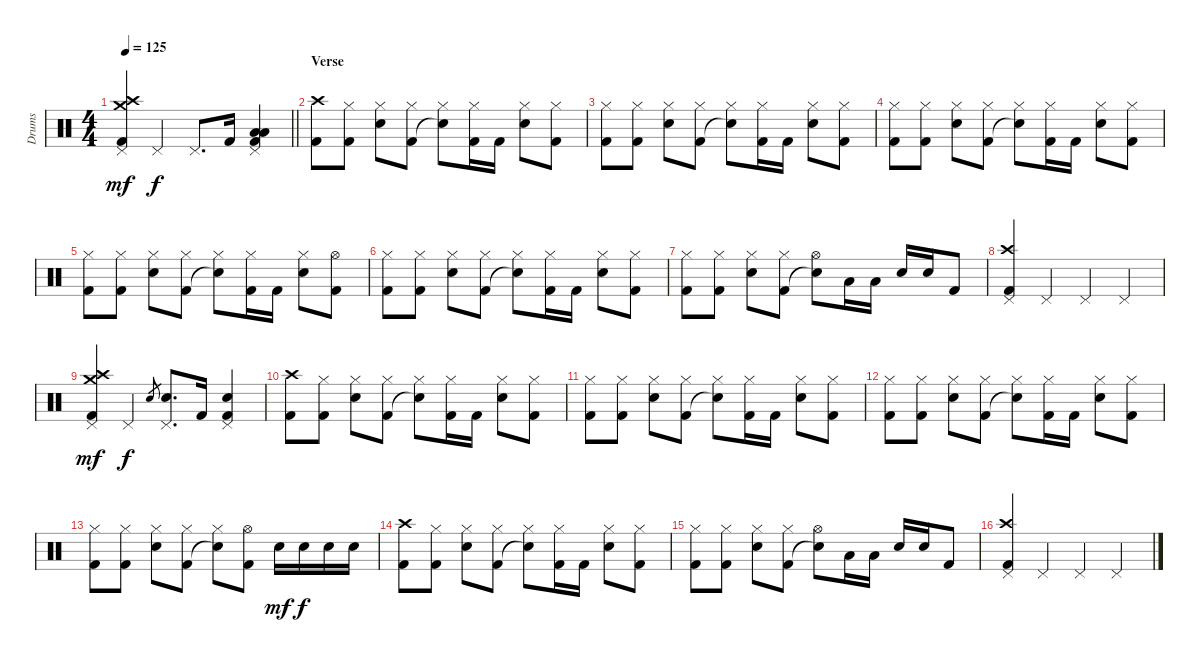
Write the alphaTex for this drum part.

\track ("Drums" "Drums") {instrument percussion}
\staff {score}
\articulation defaults
\ts (4 4)
\tempo 125
\clef neutral
\barLineRight lightlight
\ks c
("Pedal Hi-Hat (hit)" "Crash high (hit)" "Crash medium (hit)" "Kick (hit) 2").4{dy mf} "Pedal Hi-Hat (hit)".4{dy f} "Pedal Hi-Hat (hit)".8{d} "Kick (hit) 2".16 ("Pedal Hi-Hat (hit)" "Low Tom (hit)" "Low Floor Tom (hit)" "Kick (hit) 2").4 |
\section ("" "Verse")
("Crash high (hit)" "Kick (hit) 2").8 ("Hi-Hat (closed)" "Kick (hit) 2").8 ("Hi-Hat (closed)" "Electric Snare (hit)").8 ("Hi-Hat (closed)" "Kick (hit) 2").8 ("Hi-Hat (closed)" "Snare (hit)"{t}).8 ("Hi-Hat (closed)" "Kick (hit) 2").16 "Kick (hit) 2".16 ("Hi-Hat (closed)" "Electric Snare (hit)").8 ("Hi-Hat (closed)" "Kick (hit) 2").8 |
("Hi-Hat (closed)" "Kick (hit) 2").8 ("Hi-Hat (closed)" "Kick (hit) 2").8 ("Hi-Hat (closed)" "Electric Snare (hit)").8 ("Hi-Hat (closed)" "Kick (hit) 2").8 ("Hi-Hat (closed)" "Snare (hit)"{t}).8 ("Hi-Hat (closed)" "Kick (hit) 2").16 "Kick (hit) 2".16 ("Hi-Hat (closed)" "Electric Snare (hit)").8 ("Hi-Hat (closed)" "Kick (hit) 2").8 |
("Hi-Hat (closed)" "Kick (hit) 2").8 ("Hi-Hat (closed)" "Kick (hit) 2").8 ("Hi-Hat (closed)" "Electric Snare (hit)").8 ("Hi-Hat (closed)" "Kick (hit) 2").8 ("Hi-Hat (closed)" "Snare (hit)"{t}).8 ("Hi-Hat (closed)" "Kick (hit) 2").16 "Kick (hit) 2".16 ("Hi-Hat (closed)" "Electric Snare (hit)").8 ("Hi-Hat (closed)" "Kick (hit) 2").8 |
("Hi-Hat (closed)" "Kick (hit) 2").8 ("Hi-Hat (closed)" "Kick (hit) 2").8 ("Hi-Hat (closed)" "Electric Snare (hit)").8 ("Hi-Hat (closed)" "Kick (hit) 2").8 ("Hi-Hat (closed)" "Snare (hit)"{t}).8 ("Hi-Hat (closed)" "Kick (hit) 2").16 "Kick (hit) 2".16 ("Hi-Hat (closed)" "Electric Snare (hit)").8 ("Hi-Hat (open)" "Kick (hit) 2").8 |
("Hi-Hat (closed)" "Kick (hit) 2").8 ("Hi-Hat (closed)" "Kick (hit) 2").8 ("Hi-Hat (closed)" "Electric Snare (hit)").8 ("Hi-Hat (closed)" "Kick (hit) 2").8 ("Hi-Hat (closed)" "Snare (hit)"{t}).8 ("Hi-Hat (closed)" "Kick (hit) 2").16 "Kick (hit) 2".16 ("Hi-Hat (closed)" "Electric Snare (hit)").8 ("Hi-Hat (closed)" "Kick (hit) 2").8 |
("Hi-Hat (closed)" "Kick (hit) 2").8 ("Hi-Hat (closed)" "Kick (hit) 2").8 ("Hi-Hat (closed)" "Electric Snare (hit)").8 ("Hi-Hat (closed)" "Kick (hit) 2").8 ("Hi-Hat (open)" "Snare (hit)"{t}).8 "Low Tom (hit)".16 "Low Floor Tom (hit)".16 "Electric Snare (hit)".16 "Electric Snare (hit)".16 "Kick (hit) 2".8 |
("Pedal Hi-Hat (hit)" "Crash high (hit)" "Kick (hit) 2").4 "Pedal Hi-Hat (hit)".4 "Pedal Hi-Hat (hit)".4 "Pedal Hi-Hat (hit)".4 |
("Pedal Hi-Hat (hit)" "Crash high (hit)" "Crash medium (hit)" "Kick (hit) 2").4{dy mf} "Pedal Hi-Hat (hit)".4{dy f} "Electric Snare (hit)".8{gr} ("Pedal Hi-Hat (hit)" "Electric Snare (hit)").8{d} "Kick (hit) 2".16 ("Pedal Hi-Hat (hit)" "Kick (hit) 2" "Electric Snare (hit)").4 |
("Crash high (hit)" "Kick (hit) 2").8 ("Hi-Hat (closed)" "Kick (hit) 2").8 ("Hi-Hat (closed)" "Electric Snare (hit)").8 ("Hi-Hat (closed)" "Kick (hit) 2").8 ("Hi-Hat (closed)" "Snare (hit)"{t}).8 ("Hi-Hat (closed)" "Kick (hit) 2").16 "Kick (hit) 2".16 ("Hi-Hat (closed)" "Electric Snare (hit)").8 ("Hi-Hat (closed)" "Kick (hit) 2").8 |
("Hi-Hat (closed)" "Kick (hit) 2").8 ("Hi-Hat (closed)" "Kick (hit) 2").8 ("Hi-Hat (closed)" "Electric Snare (hit)").8 ("Hi-Hat (closed)" "Kick (hit) 2").8 ("Hi-Hat (closed)" "Snare (hit)"{t}).8 ("Hi-Hat (closed)" "Kick (hit) 2").16 "Kick (hit) 2".16 ("Hi-Hat (closed)" "Electric Snare (hit)").8 ("Hi-Hat (closed)" "Kick (hit) 2").8 |
("Hi-Hat (closed)" "Kick (hit) 2").8 ("Hi-Hat (closed)" "Kick (hit) 2").8 ("Hi-Hat (closed)" "Electric Snare (hit)").8 ("Hi-Hat (closed)" "Kick (hit) 2").8 ("Hi-Hat (closed)" "Snare (hit)"{t}).8 ("Hi-Hat (closed)" "Kick (hit) 2").16 "Kick (hit) 2".16 ("Hi-Hat (closed)" "Electric Snare (hit)").8 ("Hi-Hat (closed)" "Kick (hit) 2").8 |
("Hi-Hat (closed)" "Kick (hit) 2").8 ("Hi-Hat (closed)" "Kick (hit) 2").8 ("Hi-Hat (closed)" "Electric Snare (hit)").8 ("Hi-Hat (closed)" "Kick (hit) 2").8 ("Hi-Hat (closed)" "Snare (hit)"{t}).8 ("Hi-Hat (open)" "Kick (hit) 2").8 "Electric Snare (hit)".16{dy mf} "Electric Snare (hit)".16{dy f} "Electric Snare (hit)".16 "Electric Snare (hit)".16 |
("Crash high (hit)" "Kick (hit) 2").8 ("Hi-Hat (closed)" "Kick (hit) 2").8 ("Hi-Hat (closed)" "Electric Snare (hit)").8 ("Hi-Hat (closed)" "Kick (hit) 2").8 ("Hi-Hat (closed)" "Snare (hit)"{t}).8 ("Hi-Hat (closed)" "Kick (hit) 2").16 "Kick (hit) 2".16 ("Hi-Hat (closed)" "Electric Snare (hit)").8 ("Hi-Hat (closed)" "Kick (hit) 2").8 |
("Hi-Hat (closed)" "Kick (hit) 2").8 ("Hi-Hat (closed)" "Kick (hit) 2").8 ("Hi-Hat (closed)" "Electric Snare (hit)").8 ("Hi-Hat (closed)" "Kick (hit) 2").8 ("Hi-Hat (open)" "Snare (hit)"{t}).8 "Low Tom (hit)".16 "Low Floor Tom (hit)".16 "Electric Snare (hit)".16 "Electric Snare (hit)".16 "Kick (hit) 2".8 |
("Pedal Hi-Hat (hit)" "Crash high (hit)" "Kick (hit) 2").4 "Pedal Hi-Hat (hit)".4 "Pedal Hi-Hat (hit)".4 "Pedal Hi-Hat (hit)".4
